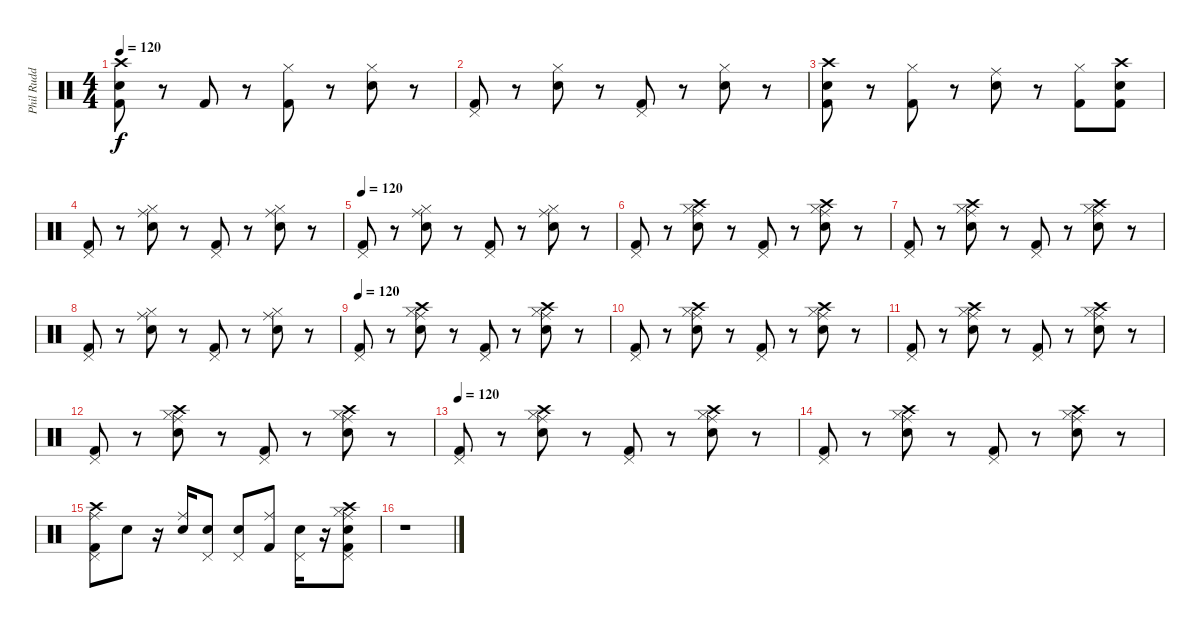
\track ("Phil Rudd" "Phil Rudd") {instrument percussion}
\staff {score}
\articulation defaults
\ts (4 4)
\tempo 125
\tempo 120
\clef neutral
\ks c
("Crash high (hit)" "Snare (hit) 2" "Kick (hit) 2").8{dy f} r.8 "Kick (hit) 2".8 r.8 ("Kick (hit) 2" "Hi-Hat (closed)").8 r.8 ("Snare (hit) 2" "Hi-Hat (closed)").8 r.8 |
("Kick (hit) 2" "Pedal Hi-Hat (hit)").8 r.8 ("Snare (hit) 2" "Hi-Hat (closed)").8 r.8 ("Kick (hit) 2" "Pedal Hi-Hat (hit)").8 r.8 ("Snare (hit) 2" "Hi-Hat (closed)").8 r.8 |
("Snare (hit) 2" "Kick (hit) 2" "Crash high (hit)").8 r.8 ("Hi-Hat (closed)" "Kick (hit) 2").8 r.8 ("Ride (middle)" "Snare (hit) 2").8 r.8 ("Hi-Hat (closed)" "Kick (hit) 2").8 ("Crash high (hit)" "Snare (hit) 2" "Kick (hit) 2").8 |
("Kick (hit) 2" "Pedal Hi-Hat (hit)").8 r.8 ("Snare (hit) 2" "Hi-Hat (closed)" "Ride (middle)").8 r.8 ("Kick (hit) 2" "Pedal Hi-Hat (hit)").8 r.8 ("Snare (hit) 2" "Hi-Hat (closed)" "Ride (middle)").8 r.8 |
\tempo 120
("Kick (hit) 2" "Pedal Hi-Hat (hit)").8 r.8 ("Snare (hit) 2" "Hi-Hat (closed)" "Ride (middle)").8 r.8 ("Kick (hit) 2" "Pedal Hi-Hat (hit)").8 r.8 ("Snare (hit) 2" "Hi-Hat (closed)" "Ride (middle)").8 r.8 |
("Kick (hit) 2" "Pedal Hi-Hat (hit)").8 r.8 ("Snare (hit) 2" "Hi-Hat (closed)" "Ride (middle)" "Crash high (hit)").8 r.8 ("Kick (hit) 2" "Pedal Hi-Hat (hit)").8 r.8 ("Snare (hit) 2" "Hi-Hat (closed)" "Ride (middle)" "Crash high (hit)").8 r.8 |
("Kick (hit) 2" "Pedal Hi-Hat (hit)").8 r.8 ("Snare (hit) 2" "Hi-Hat (closed)" "Ride (middle)" "Crash high (hit)").8 r.8 ("Kick (hit) 2" "Pedal Hi-Hat (hit)").8 r.8 ("Snare (hit) 2" "Hi-Hat (closed)" "Ride (middle)" "Crash high (hit)").8 r.8 |
("Kick (hit) 2" "Pedal Hi-Hat (hit)").8 r.8 ("Snare (hit) 2" "Hi-Hat (closed)" "Ride (middle)").8 r.8 ("Kick (hit) 2" "Pedal Hi-Hat (hit)").8 r.8 ("Snare (hit) 2" "Hi-Hat (closed)" "Ride (middle)").8 r.8 |
\tempo 126
\tempo 120
("Kick (hit) 2" "Pedal Hi-Hat (hit)").8 r.8 ("Snare (hit) 2" "Hi-Hat (closed)" "Ride (middle)" "Crash high (hit)").8 r.8 ("Kick (hit) 2" "Pedal Hi-Hat (hit)").8 r.8 ("Snare (hit) 2" "Hi-Hat (closed)" "Ride (middle)" "Crash high (hit)").8 r.8 |
("Kick (hit) 2" "Pedal Hi-Hat (hit)").8 r.8 ("Snare (hit) 2" "Hi-Hat (closed)" "Ride (middle)" "Crash high (hit)").8 r.8 ("Kick (hit) 2" "Pedal Hi-Hat (hit)").8 r.8 ("Snare (hit) 2" "Hi-Hat (closed)" "Ride (middle)" "Crash high (hit)").8 r.8 |
("Kick (hit) 2" "Pedal Hi-Hat (hit)").8 r.8 ("Snare (hit) 2" "Hi-Hat (closed)" "Ride (middle)" "Crash high (hit)").8 r.8 ("Kick (hit) 2" "Pedal Hi-Hat (hit)").8 r.8 ("Snare (hit) 2" "Hi-Hat (closed)" "Ride (middle)" "Crash high (hit)").8 r.8 |
("Kick (hit) 2" "Pedal Hi-Hat (hit)").8 r.8 ("Snare (hit) 2" "Hi-Hat (closed)" "Ride (middle)" "Crash high (hit)").8 r.8 ("Kick (hit) 2" "Pedal Hi-Hat (hit)").8 r.8 ("Snare (hit) 2" "Hi-Hat (closed)" "Ride (middle)" "Crash high (hit)").8 r.8 |
\tempo 120
("Kick (hit) 2" "Pedal Hi-Hat (hit)").8 r.8 ("Snare (hit) 2" "Hi-Hat (closed)" "Ride (middle)" "Crash high (hit)").8 r.8 ("Kick (hit) 2" "Pedal Hi-Hat (hit)").8 r.8 ("Snare (hit) 2" "Hi-Hat (closed)" "Ride (middle)" "Crash high (hit)").8 r.8 |
("Kick (hit) 2" "Pedal Hi-Hat (hit)").8 r.8 ("Snare (hit) 2" "Hi-Hat (closed)" "Ride (middle)" "Crash high (hit)").8 r.8 ("Kick (hit) 2" "Pedal Hi-Hat (hit)").8 r.8 ("Snare (hit) 2" "Hi-Hat (closed)" "Ride (middle)" "Crash high (hit)").8 r.8 |
("Kick (hit) 2" "Pedal Hi-Hat (hit)" "Ride (middle)" "Crash high (hit)").8 "Snare (hit) 2".8 r.16 ("Snare (hit) 2" "Ride (middle)").16 ("Snare (hit) 2" "Pedal Hi-Hat (hit)").8 ("Snare (hit) 2" "Pedal Hi-Hat (hit)").8 ("Kick (hit) 2" "Ride (middle)").8 ("Snare (hit) 2" "Pedal Hi-Hat (hit)").16 r.16 ("Crash high (hit)" "Snare (hit) 2" "Kick (hit) 2" "Hi-Hat (closed)" "Pedal Hi-Hat (hit)" "Ride (middle)").8 |
r.1
